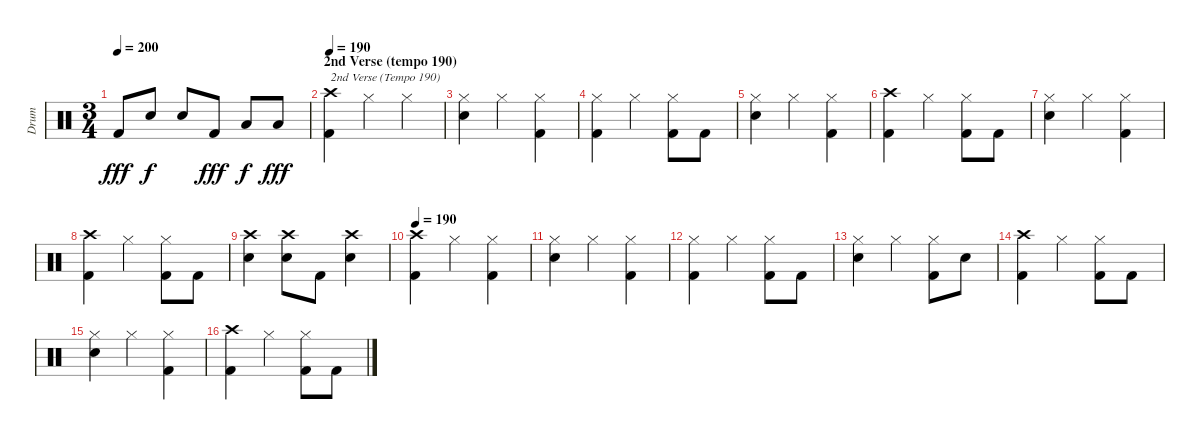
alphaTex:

\track ("Drum" "Drum") {instrument percussion}
\staff {score}
\articulation defaults
\ts (3 4)
\tempo 200
\clef neutral
\ks c "Kick (hit) 2".8{dy fff} "Snare (hit) 2".8{dy f} "Snare (hit) 2".8 "Kick (hit) 2".8{dy fff} "Low Tom (hit)".8{dy f} "Low Tom (hit)".8{dy fff}
|
\section ("" "2nd Verse (tempo 190)")
\tempo 190
("Crash high (hit)" "Kick (hit) 2").4{txt "2nd Verse (Tempo 190)"} "Hi-Hat (closed)".4 "Hi-Hat (closed)".4 |
("Hi-Hat (closed)" "Snare (hit) 2").4 "Hi-Hat (closed)".4 ("Hi-Hat (closed)" "Kick (hit) 2").4 |
("Hi-Hat (closed)" "Kick (hit) 2").4 "Hi-Hat (closed)".4 ("Hi-Hat (closed)" "Kick (hit) 2").8 "Kick (hit) 2".8 |
("Hi-Hat (closed)" "Snare (hit) 2").4 "Hi-Hat (closed)".4 ("Hi-Hat (closed)" "Kick (hit) 2").4 |
("Crash high (hit)" "Kick (hit) 2").4 "Hi-Hat (closed)".4 ("Hi-Hat (closed)" "Kick (hit) 2").8 "Kick (hit) 2".8 |
("Hi-Hat (closed)" "Snare (hit) 2").4 "Hi-Hat (closed)".4 ("Hi-Hat (closed)" "Kick (hit) 2").4 |
("Crash high (hit)" "Kick (hit) 2").4 "Hi-Hat (closed)".4 ("Hi-Hat (closed)" "Kick (hit) 2").8 "Kick (hit) 2".8 |
("Crash high (hit)" "Snare (hit) 2").4 ("Crash high (hit)" "Snare (hit) 2").8 "Kick (hit) 2".8 ("Crash high (hit)" "Snare (hit) 2").4 |
\tempo 190
("Crash high (hit)" "Kick (hit) 2").4 "Hi-Hat (closed)".4 ("Hi-Hat (closed)" "Kick (hit) 2").4 |
("Hi-Hat (closed)" "Snare (hit) 2").4 "Hi-Hat (closed)".4 ("Hi-Hat (closed)" "Kick (hit) 2").4 |
("Hi-Hat (closed)" "Kick (hit) 2").4 "Hi-Hat (closed)".4 ("Hi-Hat (closed)" "Kick (hit) 2").8 "Kick (hit) 2".8 |
("Hi-Hat (closed)" "Snare (hit) 2").4 "Hi-Hat (closed)".4 ("Hi-Hat (closed)" "Kick (hit) 2").8 "Snare (hit) 2".8 |
("Crash high (hit)" "Kick (hit) 2").4 "Hi-Hat (closed)".4 ("Hi-Hat (closed)" "Kick (hit) 2").8 "Kick (hit) 2".8 |
("Hi-Hat (closed)" "Snare (hit) 2").4 "Hi-Hat (closed)".4 ("Hi-Hat (closed)" "Kick (hit) 2").4 |
("Crash high (hit)" "Kick (hit) 2").4 "Hi-Hat (closed)".4 ("Hi-Hat (closed)" "Kick (hit) 2").8 "Kick (hit) 2".8
